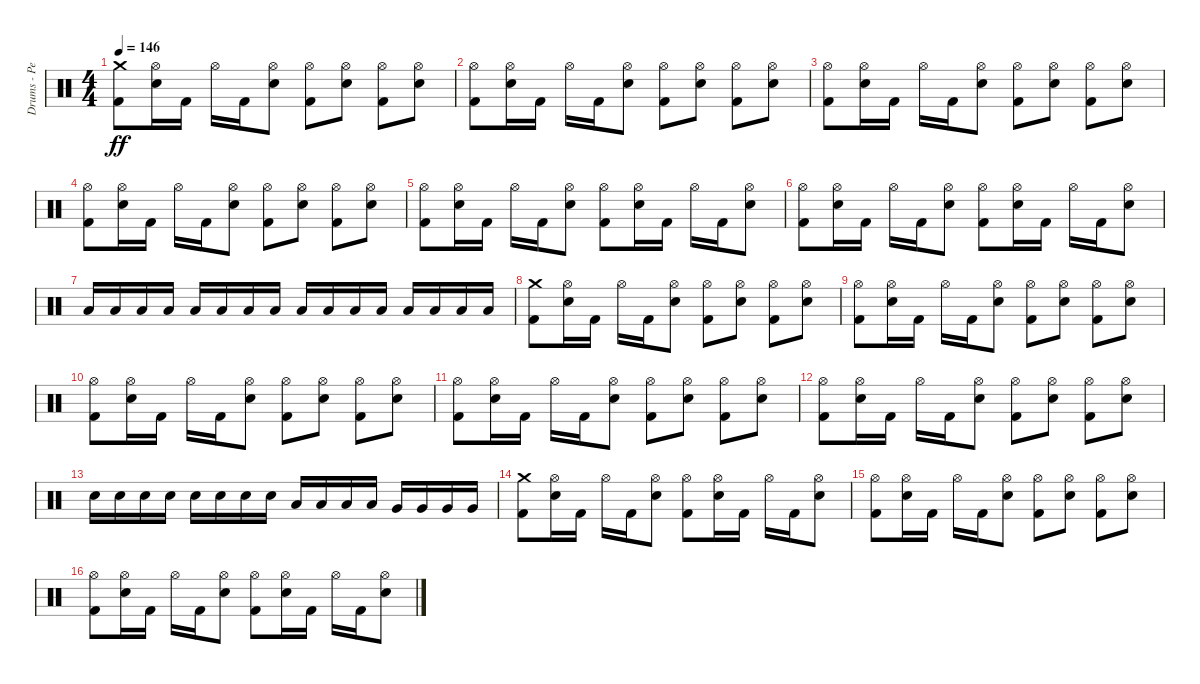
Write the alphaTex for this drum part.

\track ("Drums - Pete Finestone" "Drums - Pe") {instrument percussion}
\staff {score}
\articulation defaults
\ts (4 4)
\tempo 146
\clef neutral
\ks c
("Crash medium (hit)" "Kick (hit) 2").8{dy ff} ("Electric Snare (hit)" "Hi-Hat (open)").16 "Kick (hit) 2".16 "Hi-Hat (open)".16 "Kick (hit) 2".16 ("Electric Snare (hit)" "Hi-Hat (open)").8 ("Kick (hit) 2" "Hi-Hat (open)").8 ("Electric Snare (hit)" "Hi-Hat (open)").8 ("Kick (hit) 2" "Hi-Hat (open)").8 ("Electric Snare (hit)" "Hi-Hat (open)").8 |
("Kick (hit) 2" "Hi-Hat (open)").8 ("Electric Snare (hit)" "Hi-Hat (open)").16 "Kick (hit) 2".16 "Hi-Hat (open)".16 "Kick (hit) 2".16 ("Electric Snare (hit)" "Hi-Hat (open)").8 ("Kick (hit) 2" "Hi-Hat (open)").8 ("Electric Snare (hit)" "Hi-Hat (open)").8 ("Kick (hit) 2" "Hi-Hat (open)").8 ("Electric Snare (hit)" "Hi-Hat (open)").8 |
("Hi-Hat (open)" "Kick (hit) 2").8 ("Hi-Hat (open)" "Electric Snare (hit)").16 "Kick (hit) 2".16 "Hi-Hat (open)".16 "Kick (hit) 2".16 ("Hi-Hat (open)" "Electric Snare (hit)").8 ("Hi-Hat (open)" "Kick (hit) 2").8 ("Hi-Hat (open)" "Electric Snare (hit)").8 ("Hi-Hat (open)" "Kick (hit) 2").8 ("Hi-Hat (open)" "Electric Snare (hit)").8 |
("Kick (hit) 2" "Hi-Hat (open)").8 ("Electric Snare (hit)" "Hi-Hat (open)").16 "Kick (hit) 2".16 "Hi-Hat (open)".16 "Kick (hit) 2".16 ("Electric Snare (hit)" "Hi-Hat (open)").8 ("Kick (hit) 2" "Hi-Hat (open)").8 ("Electric Snare (hit)" "Hi-Hat (open)").8 ("Kick (hit) 2" "Hi-Hat (open)").8 ("Electric Snare (hit)" "Hi-Hat (open)").8 |
("Kick (hit) 2" "Hi-Hat (open)").8 ("Electric Snare (hit)" "Hi-Hat (open)").16 "Kick (hit) 2".16 "Hi-Hat (open)".16 "Kick (hit) 2".16 ("Electric Snare (hit)" "Hi-Hat (open)").8 ("Kick (hit) 2" "Hi-Hat (open)").8 ("Electric Snare (hit)" "Hi-Hat (open)").16 "Kick (hit) 2".16 "Hi-Hat (open)".16 "Kick (hit) 2".16 ("Electric Snare (hit)" "Hi-Hat (open)").8 |
("Kick (hit) 2" "Hi-Hat (open)").8 ("Electric Snare (hit)" "Hi-Hat (open)").16 "Kick (hit) 2".16 "Hi-Hat (open)".16 "Kick (hit) 2".16 ("Electric Snare (hit)" "Hi-Hat (open)").8 ("Kick (hit) 2" "Hi-Hat (open)").8 ("Electric Snare (hit)" "Hi-Hat (open)").16 "Kick (hit) 2".16 "Hi-Hat (open)".16 "Kick (hit) 2".16 ("Electric Snare (hit)" "Hi-Hat (open)").8 |
"Low Tom (hit)".16 "Low Tom (hit)".16 "Low Tom (hit)".16 "Low Tom (hit)".16 "Low Tom (hit)".16 "Low Tom (hit)".16 "Low Tom (hit)".16 "Low Tom (hit)".16 "Low Tom (hit)".16 "Low Tom (hit)".16 "Low Tom (hit)".16 "Low Tom (hit)".16 "Low Tom (hit)".16 "Low Tom (hit)".16 "Low Tom (hit)".16 "Low Tom (hit)".16 |
("Crash medium (hit)" "Kick (hit) 2").8 ("Electric Snare (hit)" "Hi-Hat (open)").16 "Kick (hit) 2".16 "Hi-Hat (open)".16 "Kick (hit) 2".16 ("Electric Snare (hit)" "Hi-Hat (open)").8 ("Kick (hit) 2" "Hi-Hat (open)").8 ("Electric Snare (hit)" "Hi-Hat (open)").8 ("Kick (hit) 2" "Hi-Hat (open)").8 ("Electric Snare (hit)" "Hi-Hat (open)").8 |
("Kick (hit) 2" "Hi-Hat (open)").8 ("Electric Snare (hit)" "Hi-Hat (open)").16 "Kick (hit) 2".16 "Hi-Hat (open)".16 "Kick (hit) 2".16 ("Electric Snare (hit)" "Hi-Hat (open)").8 ("Kick (hit) 2" "Hi-Hat (open)").8 ("Electric Snare (hit)" "Hi-Hat (open)").8 ("Kick (hit) 2" "Hi-Hat (open)").8 ("Electric Snare (hit)" "Hi-Hat (open)").8 |
("Kick (hit) 2" "Hi-Hat (open)").8 ("Electric Snare (hit)" "Hi-Hat (open)").16 "Kick (hit) 2".16 "Hi-Hat (open)".16 "Kick (hit) 2".16 ("Electric Snare (hit)" "Hi-Hat (open)").8 ("Kick (hit) 2" "Hi-Hat (open)").8 ("Electric Snare (hit)" "Hi-Hat (open)").8 ("Kick (hit) 2" "Hi-Hat (open)").8 ("Electric Snare (hit)" "Hi-Hat (open)").8 |
("Kick (hit) 2" "Hi-Hat (open)").8 ("Electric Snare (hit)" "Hi-Hat (open)").16 "Kick (hit) 2".16 "Hi-Hat (open)".16 "Kick (hit) 2".16 ("Electric Snare (hit)" "Hi-Hat (open)").8 ("Kick (hit) 2" "Hi-Hat (open)").8 ("Electric Snare (hit)" "Hi-Hat (open)").8 ("Kick (hit) 2" "Hi-Hat (open)").8 ("Electric Snare (hit)" "Hi-Hat (open)").8 |
("Kick (hit) 2" "Hi-Hat (open)").8 ("Electric Snare (hit)" "Hi-Hat (open)").16 "Kick (hit) 2".16 "Hi-Hat (open)".16 "Kick (hit) 2".16 ("Electric Snare (hit)" "Hi-Hat (open)").8 ("Kick (hit) 2" "Hi-Hat (open)").8 ("Electric Snare (hit)" "Hi-Hat (open)").8 ("Kick (hit) 2" "Hi-Hat (open)").8 ("Electric Snare (hit)" "Hi-Hat (open)").8 |
"Electric Snare (hit)".16 "Electric Snare (hit)".16 "Electric Snare (hit)".16 "Electric Snare (hit)".16 "Electric Snare (hit)".16 "Electric Snare (hit)".16 "Electric Snare (hit)".16 "Electric Snare (hit)".16 "Low Tom (hit)".16 "Low Tom (hit)".16 "Low Tom (hit)".16 "Low Tom (hit)".16 "Very Low Tom (hit)".16 "Very Low Tom (hit)".16 "Very Low Tom (hit)".16 "Very Low Tom (hit)".16 |
("Kick (hit) 2" "Crash medium (hit)").8 ("Electric Snare (hit)" "Hi-Hat (open)").16 "Kick (hit) 2".16 "Hi-Hat (open)".16 "Kick (hit) 2".16 ("Electric Snare (hit)" "Hi-Hat (open)").8 ("Kick (hit) 2" "Hi-Hat (open)").8 ("Electric Snare (hit)" "Hi-Hat (open)").16 "Kick (hit) 2".16 "Hi-Hat (open)".16 "Kick (hit) 2".16 ("Electric Snare (hit)" "Hi-Hat (open)").8 |
("Kick (hit) 2" "Hi-Hat (open)").8 ("Electric Snare (hit)" "Hi-Hat (open)").16 "Kick (hit) 2".16 "Hi-Hat (open)".16 "Kick (hit) 2".16 ("Electric Snare (hit)" "Hi-Hat (open)").8 ("Kick (hit) 2" "Hi-Hat (open)").8 ("Electric Snare (hit)" "Hi-Hat (open)").8 ("Kick (hit) 2" "Hi-Hat (open)").8 ("Electric Snare (hit)" "Hi-Hat (open)").8 |
("Kick (hit) 2" "Hi-Hat (open)").8 ("Electric Snare (hit)" "Hi-Hat (open)").16 "Kick (hit) 2".16 "Hi-Hat (open)".16 "Kick (hit) 2".16 ("Electric Snare (hit)" "Hi-Hat (open)").8 ("Kick (hit) 2" "Hi-Hat (open)").8 ("Electric Snare (hit)" "Hi-Hat (open)").16 "Kick (hit) 2".16 "Hi-Hat (open)".16 "Kick (hit) 2".16 ("Electric Snare (hit)" "Hi-Hat (open)").8
